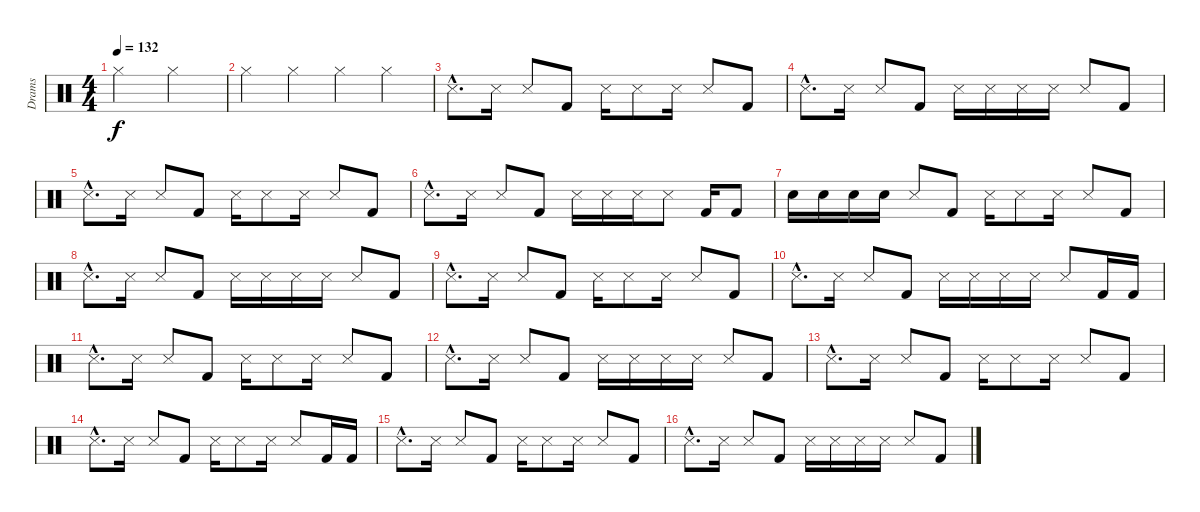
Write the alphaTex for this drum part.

\track ("Drams" "Drams") {instrument percussion}
\staff {score}
\articulation defaults
\ts (4 4)
\tempo 132
\clef neutral
\ks c "Hi-Hat (closed)".2{dy f} "Hi-Hat (closed)".2
|
"Hi-Hat (closed)".4 "Hi-Hat (closed)".4 "Hi-Hat (closed)".4 "Hi-Hat (closed)".4 |
"Snare (side stick) 3"{hac}.8{d} "Snare (side stick) 3".16 "Snare (side stick) 3".8 "Kick (hit) 2".8 "Snare (side stick) 3".16 "Snare (side stick) 3".8 "Snare (side stick) 3".16 "Snare (side stick) 3".8 "Kick (hit) 2".8 |
"Snare (side stick) 3"{hac}.8{d} "Snare (side stick) 3".16 "Snare (side stick) 3".8 "Kick (hit) 2".8 "Snare (side stick) 3".16 "Snare (side stick) 3".16 "Snare (side stick) 3".16 "Snare (side stick) 3".16 "Snare (side stick) 3".8 "Kick (hit) 2".8 |
"Snare (side stick) 3"{hac}.8{d} "Snare (side stick) 3".16 "Snare (side stick) 3".8 "Kick (hit) 2".8 "Snare (side stick) 3".16 "Snare (side stick) 3".8 "Snare (side stick) 3".16 "Snare (side stick) 3".8 "Kick (hit) 2".8 |
"Snare (side stick) 3"{hac}.8{d} "Snare (side stick) 3".16 "Snare (side stick) 3".8 "Kick (hit) 2".8 "Snare (side stick) 3".16 "Snare (side stick) 3".16 "Snare (side stick) 3".16 "Snare (side stick) 3".8 "Kick (hit) 2".16 "Kick (hit) 2".8 |
"Snare (hit) 2".16 "Snare (hit) 2".16 "Snare (hit) 2".16 "Snare (hit) 2".16 "Snare (side stick) 3".8 "Kick (hit) 2".8 "Snare (side stick) 3".16 "Snare (side stick) 3".8 "Snare (side stick) 3".16 "Snare (side stick) 3".8 "Kick (hit) 2".8 |
"Snare (side stick) 3"{hac}.8{d} "Snare (side stick) 3".16 "Snare (side stick) 3".8 "Kick (hit) 2".8 "Snare (side stick) 3".16 "Snare (side stick) 3".16 "Snare (side stick) 3".16 "Snare (side stick) 3".16 "Snare (side stick) 3".8 "Kick (hit) 2".8 |
"Snare (side stick) 3"{hac}.8{d} "Snare (side stick) 3".16 "Snare (side stick) 3".8 "Kick (hit) 2".8 "Snare (side stick) 3".16 "Snare (side stick) 3".8 "Snare (side stick) 3".16 "Snare (side stick) 3".8 "Kick (hit) 2".8 |
"Snare (side stick) 3"{hac}.8{d} "Snare (side stick) 3".16 "Snare (side stick) 3".8 "Kick (hit) 2".8 "Snare (side stick) 3".16 "Snare (side stick) 3".16 "Snare (side stick) 3".16 "Snare (side stick) 3".16 "Snare (side stick) 3".8 "Kick (hit) 2".16 "Kick (hit) 2".16 |
"Snare (side stick) 3"{hac}.8{d} "Snare (side stick) 3".16 "Snare (side stick) 3".8 "Kick (hit) 2".8 "Snare (side stick) 3".16 "Snare (side stick) 3".8 "Snare (side stick) 3".16 "Snare (side stick) 3".8 "Kick (hit) 2".8 |
"Snare (side stick) 3"{hac}.8{d} "Snare (side stick) 3".16 "Snare (side stick) 3".8 "Kick (hit) 2".8 "Snare (side stick) 3".16 "Snare (side stick) 3".16 "Snare (side stick) 3".16 "Snare (side stick) 3".16 "Snare (side stick) 3".8 "Kick (hit) 2".8 |
"Snare (side stick) 3"{hac}.8{d} "Snare (side stick) 3".16 "Snare (side stick) 3".8 "Kick (hit) 2".8 "Snare (side stick) 3".16 "Snare (side stick) 3".8 "Snare (side stick) 3".16 "Snare (side stick) 3".8 "Kick (hit) 2".8 |
"Snare (side stick) 3"{hac}.8{d} "Snare (side stick) 3".16 "Snare (side stick) 3".8 "Kick (hit) 2".8 "Snare (side stick) 3".16 "Snare (side stick) 3".8 "Snare (side stick) 3".16 "Snare (side stick) 3".8 "Kick (hit) 2".16 "Kick (hit) 2".16 |
"Snare (side stick) 3"{hac}.8{d} "Snare (side stick) 3".16 "Snare (side stick) 3".8 "Kick (hit) 2".8 "Snare (side stick) 3".16 "Snare (side stick) 3".8 "Snare (side stick) 3".16 "Snare (side stick) 3".8 "Kick (hit) 2".8 |
"Snare (side stick) 3"{hac}.8{d} "Snare (side stick) 3".16 "Snare (side stick) 3".8 "Kick (hit) 2".8 "Snare (side stick) 3".16 "Snare (side stick) 3".16 "Snare (side stick) 3".16 "Snare (side stick) 3".16 "Snare (side stick) 3".8 "Kick (hit) 2".8
